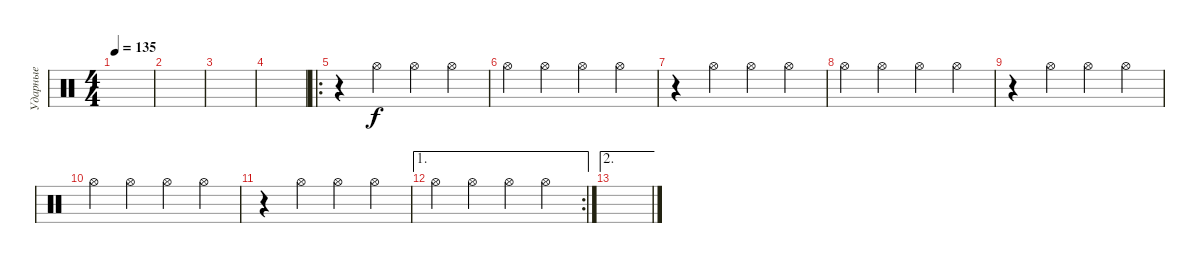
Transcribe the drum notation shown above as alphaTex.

\track ("Ударные" "Ударные") {instrument percussion}
\staff {score}
\articulation defaults
\ts (4 4)
\tempo 135
\clef neutral
\ks c
|
|
|
|
\ro
r.4 "Hi-Hat (open)".4 "Hi-Hat (open)".4 "Hi-Hat (open)".4 |
"Hi-Hat (open)".4 "Hi-Hat (open)".4 "Hi-Hat (open)".4 "Hi-Hat (open)".4 |
r.4 "Hi-Hat (open)".4 "Hi-Hat (open)".4 "Hi-Hat (open)".4 |
"Hi-Hat (open)".4 "Hi-Hat (open)".4 "Hi-Hat (open)".4 "Hi-Hat (open)".4 |
r.4 "Hi-Hat (open)".4 "Hi-Hat (open)".4 "Hi-Hat (open)".4 |
"Hi-Hat (open)".4 "Hi-Hat (open)".4 "Hi-Hat (open)".4 "Hi-Hat (open)".4 |
r.4 "Hi-Hat (open)".4 "Hi-Hat (open)".4 "Hi-Hat (open)".4 |
\ae 1
\rc 2 "Hi-Hat (open)".4 "Hi-Hat (open)".4 "Hi-Hat (open)".4 "Hi-Hat (open)".4
|
\ae 2
